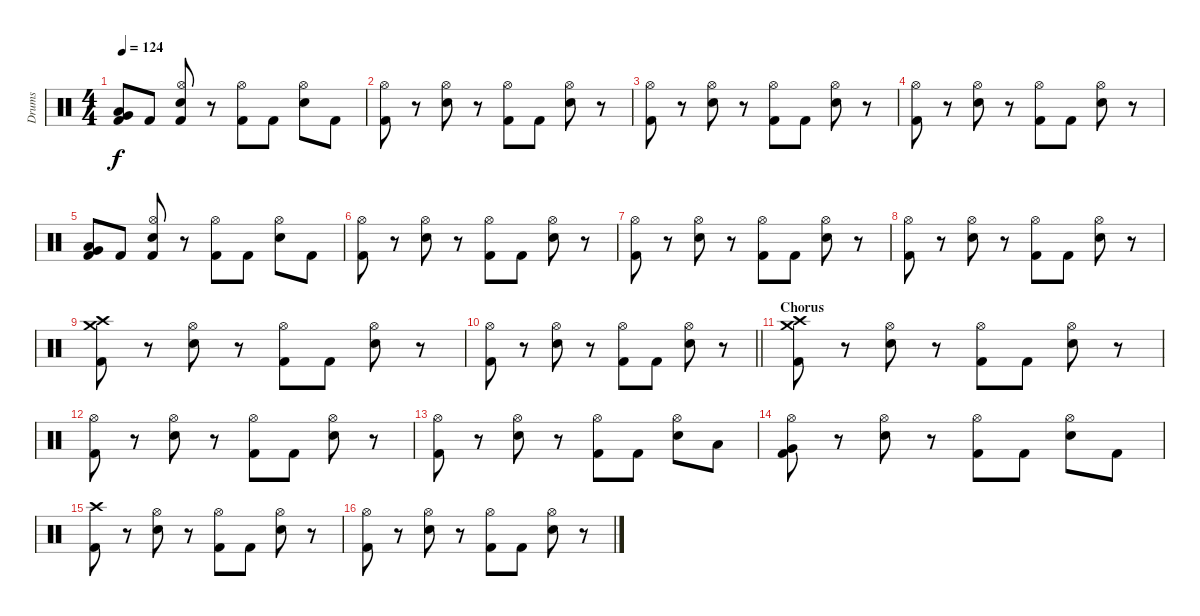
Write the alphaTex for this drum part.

\track ("Drums" "Drums") {instrument percussion}
\staff {score}
\articulation defaults
\ts (4 4)
\tempo 124
\clef neutral
\ks c
("Very Low Tom (hit)" "Low Tom (hit)" "Kick (hit) 2").8{dy f} "Kick (hit) 2".8 ("Hi-Hat (open)" "Electric Snare (hit)" "Kick (hit) 2").8 r.8 ("Hi-Hat (open)" "Kick (hit) 2").8 "Kick (hit) 2".8 ("Hi-Hat (open)" "Electric Snare (hit)").8 "Kick (hit) 2".8 |
("Hi-Hat (open)" "Kick (hit) 2").8 r.8 ("Hi-Hat (open)" "Electric Snare (hit)").8 r.8 ("Hi-Hat (open)" "Kick (hit) 2").8 "Kick (hit) 2".8 ("Hi-Hat (open)" "Electric Snare (hit)").8 r.8 |
("Hi-Hat (open)" "Kick (hit) 2").8 r.8 ("Hi-Hat (open)" "Electric Snare (hit)").8 r.8 ("Hi-Hat (open)" "Kick (hit) 2").8 "Kick (hit) 2".8 ("Hi-Hat (open)" "Electric Snare (hit)").8 r.8 |
("Hi-Hat (open)" "Kick (hit) 2").8 r.8 ("Hi-Hat (open)" "Electric Snare (hit)").8 r.8 ("Hi-Hat (open)" "Kick (hit) 2").8 "Kick (hit) 2".8 ("Hi-Hat (open)" "Electric Snare (hit)").8 r.8 |
("Very Low Tom (hit)" "Low Tom (hit)" "Kick (hit) 2").8 "Kick (hit) 2".8 ("Hi-Hat (open)" "Electric Snare (hit)" "Kick (hit) 2").8 r.8 ("Hi-Hat (open)" "Kick (hit) 2").8 "Kick (hit) 2".8 ("Hi-Hat (open)" "Electric Snare (hit)").8 "Kick (hit) 2".8 |
("Hi-Hat (open)" "Kick (hit) 2").8 r.8 ("Hi-Hat (open)" "Electric Snare (hit)").8 r.8 ("Hi-Hat (open)" "Kick (hit) 2").8 "Kick (hit) 2".8 ("Hi-Hat (open)" "Electric Snare (hit)").8 r.8 |
("Hi-Hat (open)" "Kick (hit) 2").8 r.8 ("Hi-Hat (open)" "Electric Snare (hit)").8 r.8 ("Hi-Hat (open)" "Kick (hit) 2").8 "Kick (hit) 2".8 ("Hi-Hat (open)" "Electric Snare (hit)").8 r.8 |
("Hi-Hat (open)" "Kick (hit) 2").8 r.8 ("Hi-Hat (open)" "Electric Snare (hit)").8 r.8 ("Hi-Hat (open)" "Kick (hit) 2").8 "Kick (hit) 2".8 ("Hi-Hat (open)" "Electric Snare (hit)").8 r.8 |
("Crash medium (hit)" "Crash high (hit)" "Kick (hit) 2").8 r.8 ("Hi-Hat (open)" "Electric Snare (hit)").8 r.8 ("Hi-Hat (open)" "Kick (hit) 2").8 "Kick (hit) 2".8 ("Hi-Hat (open)" "Electric Snare (hit)").8 r.8 |
\barLineRight lightlight
("Hi-Hat (open)" "Kick (hit) 2").8 r.8 ("Hi-Hat (open)" "Electric Snare (hit)").8 r.8 ("Hi-Hat (open)" "Kick (hit) 2").8 "Kick (hit) 2".8 ("Hi-Hat (open)" "Electric Snare (hit)").8 r.8 |
\section ("" "Chorus")
("Crash medium (hit)" "Crash high (hit)" "Kick (hit) 2").8 r.8 ("Hi-Hat (open)" "Electric Snare (hit)").8 r.8 ("Hi-Hat (open)" "Kick (hit) 2").8 "Kick (hit) 2".8 ("Hi-Hat (open)" "Electric Snare (hit)").8 r.8 |
("Hi-Hat (open)" "Kick (hit) 2").8 r.8 ("Hi-Hat (open)" "Electric Snare (hit)").8 r.8 ("Hi-Hat (open)" "Kick (hit) 2").8 "Kick (hit) 2".8 ("Hi-Hat (open)" "Electric Snare (hit)").8 r.8 |
("Hi-Hat (open)" "Kick (hit) 2").8 r.8 ("Hi-Hat (open)" "Electric Snare (hit)").8 r.8 ("Hi-Hat (open)" "Kick (hit) 2").8 "Kick (hit) 2".8 ("Hi-Hat (open)" "Electric Snare (hit)").8 "Low Tom (hit)".8 |
("Hi-Hat (open)" "Very Low Tom (hit)" "Kick (hit) 2").8 r.8 ("Hi-Hat (open)" "Electric Snare (hit)").8 r.8 ("Hi-Hat (open)" "Kick (hit) 2").8 "Kick (hit) 2".8 ("Hi-Hat (open)" "Electric Snare (hit)").8 "Kick (hit) 2".8 |
("Crash high (hit)" "Kick (hit) 2").8 r.8 ("Hi-Hat (open)" "Electric Snare (hit)").8 r.8 ("Hi-Hat (open)" "Kick (hit) 2").8 "Kick (hit) 2".8 ("Hi-Hat (open)" "Electric Snare (hit)").8 r.8 |
("Hi-Hat (open)" "Kick (hit) 2").8 r.8 ("Hi-Hat (open)" "Electric Snare (hit)").8 r.8 ("Hi-Hat (open)" "Kick (hit) 2").8 "Kick (hit) 2".8 ("Hi-Hat (open)" "Electric Snare (hit)").8 r.8
